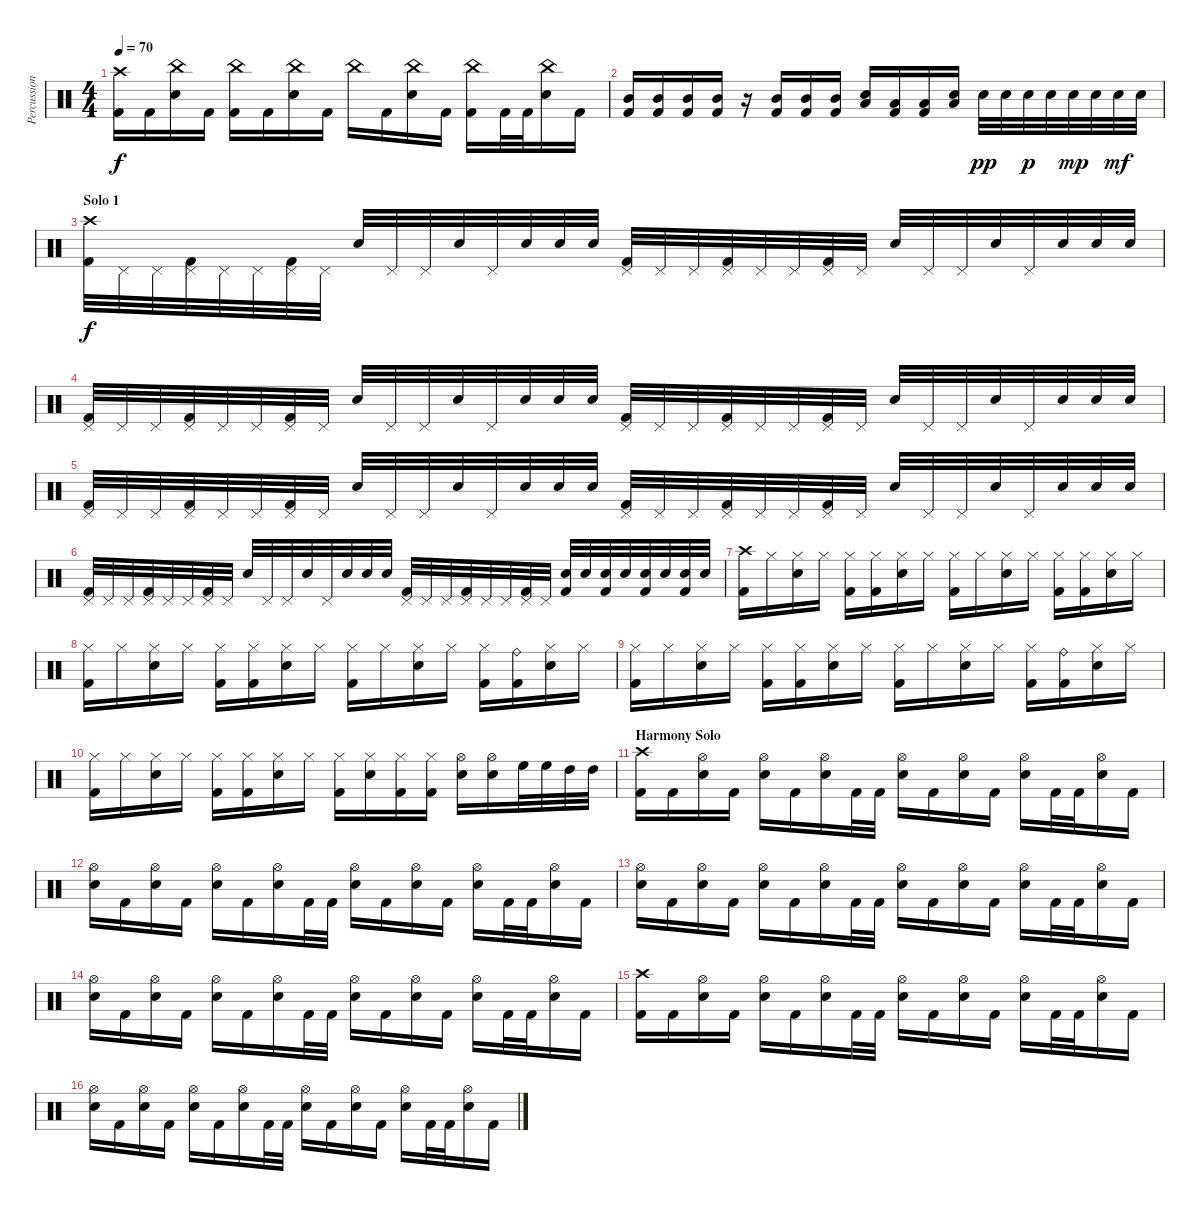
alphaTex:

\track ("Percussion" "Percussion") {instrument percussion}
\staff {score}
\articulation defaults
\ts (4 4)
\tempo 70
\clef neutral
\ks c
("Kick (hit) 2" "Crash high (hit)").16{dy f} "Kick (hit) 2".16 ("Electric Snare (hit)" "China (hit)").16 "Kick (hit) 2".16 ("Kick (hit) 2" "China (hit)").16 "Kick (hit) 2".16 ("Electric Snare (hit)" "China (hit)").16 "Kick (hit) 2".16 "China (hit)".16 "Kick (hit) 2".16 ("Electric Snare (hit)" "China (hit)").16 "Kick (hit) 2".16 ("Kick (hit) 2" "China (hit)").16 "Kick (hit) 2".32 "Kick (hit) 2".32 ("Electric Snare (hit)" "China (hit)").16 "Kick (hit) 2".16 |
("Kick (hit) 2" "Mid Tom (hit)").16 ("Kick (hit) 2" "Mid Tom (hit)").16 ("Kick (hit) 2" "Mid Tom (hit)").16 ("Kick (hit) 2" "Mid Tom (hit)").16 r.16 ("Kick (hit) 2" "Mid Tom (hit)").16 ("Kick (hit) 2" "Mid Tom (hit)").16 ("Kick (hit) 2" "Mid Tom (hit)").16 ("Electric Snare (hit)" "Low Tom (hit)").16 ("Kick (hit) 2" "Low Tom (hit)").16 ("Kick (hit) 2" "Low Tom (hit)").16 ("Electric Snare (hit)" "Low Tom (hit)").16 "Electric Snare (hit)".32{dy pp} "Electric Snare (hit)".32 "Electric Snare (hit)".32{dy p} "Electric Snare (hit)".32 "Electric Snare (hit)".32{dy mp} "Electric Snare (hit)".32 "Electric Snare (hit)".32{dy mf} "Electric Snare (hit)".32 |
\section ("" "Solo 1")
("Kick (hit) 2" "Crash high (hit)").32{dy f} "Pedal Hi-Hat (hit)".32 "Pedal Hi-Hat (hit)".32 ("Kick (hit) 2" "Pedal Hi-Hat (hit)").32 "Pedal Hi-Hat (hit)".32 "Pedal Hi-Hat (hit)".32 ("Kick (hit) 2" "Pedal Hi-Hat (hit)").32 "Pedal Hi-Hat (hit)".32 "Electric Snare (hit)".32 "Pedal Hi-Hat (hit)".32 "Pedal Hi-Hat (hit)".32 "Electric Snare (hit)".32 "Pedal Hi-Hat (hit)".32 "Electric Snare (hit)".32 "Electric Snare (hit)".32 "Electric Snare (hit)".32 ("Kick (hit) 2" "Pedal Hi-Hat (hit)").32 "Pedal Hi-Hat (hit)".32 "Pedal Hi-Hat (hit)".32 ("Kick (hit) 2" "Pedal Hi-Hat (hit)").32 "Pedal Hi-Hat (hit)".32 "Pedal Hi-Hat (hit)".32 ("Kick (hit) 2" "Pedal Hi-Hat (hit)").32 "Pedal Hi-Hat (hit)".32 "Electric Snare (hit)".32 "Pedal Hi-Hat (hit)".32 "Pedal Hi-Hat (hit)".32 "Electric Snare (hit)".32 "Pedal Hi-Hat (hit)".32 "Electric Snare (hit)".32 "Electric Snare (hit)".32 "Electric Snare (hit)".32 |
("Kick (hit) 2" "Pedal Hi-Hat (hit)").32 "Pedal Hi-Hat (hit)".32 "Pedal Hi-Hat (hit)".32 ("Kick (hit) 2" "Pedal Hi-Hat (hit)").32 "Pedal Hi-Hat (hit)".32 "Pedal Hi-Hat (hit)".32 ("Kick (hit) 2" "Pedal Hi-Hat (hit)").32 "Pedal Hi-Hat (hit)".32 "Electric Snare (hit)".32 "Pedal Hi-Hat (hit)".32 "Pedal Hi-Hat (hit)".32 "Electric Snare (hit)".32 "Pedal Hi-Hat (hit)".32 "Electric Snare (hit)".32 "Electric Snare (hit)".32 "Electric Snare (hit)".32 ("Kick (hit) 2" "Pedal Hi-Hat (hit)").32 "Pedal Hi-Hat (hit)".32 "Pedal Hi-Hat (hit)".32 ("Kick (hit) 2" "Pedal Hi-Hat (hit)").32 "Pedal Hi-Hat (hit)".32 "Pedal Hi-Hat (hit)".32 ("Kick (hit) 2" "Pedal Hi-Hat (hit)").32 "Pedal Hi-Hat (hit)".32 "Electric Snare (hit)".32 "Pedal Hi-Hat (hit)".32 "Pedal Hi-Hat (hit)".32 "Electric Snare (hit)".32 "Pedal Hi-Hat (hit)".32 "Electric Snare (hit)".32 "Electric Snare (hit)".32 "Electric Snare (hit)".32 |
("Kick (hit) 2" "Pedal Hi-Hat (hit)").32 "Pedal Hi-Hat (hit)".32 "Pedal Hi-Hat (hit)".32 ("Kick (hit) 2" "Pedal Hi-Hat (hit)").32 "Pedal Hi-Hat (hit)".32 "Pedal Hi-Hat (hit)".32 ("Kick (hit) 2" "Pedal Hi-Hat (hit)").32 "Pedal Hi-Hat (hit)".32 "Electric Snare (hit)".32 "Pedal Hi-Hat (hit)".32 "Pedal Hi-Hat (hit)".32 "Electric Snare (hit)".32 "Pedal Hi-Hat (hit)".32 "Electric Snare (hit)".32 "Electric Snare (hit)".32 "Electric Snare (hit)".32 ("Kick (hit) 2" "Pedal Hi-Hat (hit)").32 "Pedal Hi-Hat (hit)".32 "Pedal Hi-Hat (hit)".32 ("Kick (hit) 2" "Pedal Hi-Hat (hit)").32 "Pedal Hi-Hat (hit)".32 "Pedal Hi-Hat (hit)".32 ("Kick (hit) 2" "Pedal Hi-Hat (hit)").32 "Pedal Hi-Hat (hit)".32 "Electric Snare (hit)".32 "Pedal Hi-Hat (hit)".32 "Pedal Hi-Hat (hit)".32 "Electric Snare (hit)".32 "Pedal Hi-Hat (hit)".32 "Electric Snare (hit)".32 "Electric Snare (hit)".32 "Electric Snare (hit)".32 |
("Kick (hit) 2" "Pedal Hi-Hat (hit)").32 "Pedal Hi-Hat (hit)".32 "Pedal Hi-Hat (hit)".32 ("Kick (hit) 2" "Pedal Hi-Hat (hit)").32 "Pedal Hi-Hat (hit)".32 "Pedal Hi-Hat (hit)".32 ("Kick (hit) 2" "Pedal Hi-Hat (hit)").32 "Pedal Hi-Hat (hit)".32 "Electric Snare (hit)".32 "Pedal Hi-Hat (hit)".32 "Pedal Hi-Hat (hit)".32 "Electric Snare (hit)".32 "Pedal Hi-Hat (hit)".32 "Electric Snare (hit)".32 "Electric Snare (hit)".32 "Electric Snare (hit)".32 ("Kick (hit) 2" "Pedal Hi-Hat (hit)").32 "Pedal Hi-Hat (hit)".32 "Pedal Hi-Hat (hit)".32 ("Kick (hit) 2" "Pedal Hi-Hat (hit)").32 "Pedal Hi-Hat (hit)".32 "Pedal Hi-Hat (hit)".32 ("Kick (hit) 2" "Pedal Hi-Hat (hit)").32 "Pedal Hi-Hat (hit)".32 ("Electric Snare (hit)" "Kick (hit) 2").32 "Electric Snare (hit)".32 ("Electric Snare (hit)" "Kick (hit) 2").32 "Electric Snare (hit)".32 ("Electric Snare (hit)" "Kick (hit) 2").32 "Electric Snare (hit)".32 ("Electric Snare (hit)" "Kick (hit) 2").32 "Electric Snare (hit)".32 |
("Kick (hit) 2" "Crash high (hit)").16 "Hi-Hat (closed)".16 ("Electric Snare (hit)" "Hi-Hat (closed)").16 "Hi-Hat (closed)".16 ("Kick (hit) 2" "Hi-Hat (closed)").16 ("Kick (hit) 2" "Hi-Hat (closed)").16 ("Electric Snare (hit)" "Hi-Hat (closed)").16 "Hi-Hat (closed)".16 ("Kick (hit) 2" "Hi-Hat (closed)").16 "Hi-Hat (closed)".16 ("Electric Snare (hit)" "Hi-Hat (closed)").16 "Hi-Hat (closed)".16 ("Kick (hit) 2" "Hi-Hat (closed)").16 ("Kick (hit) 2" "Hi-Hat (closed)").16 ("Electric Snare (hit)" "Hi-Hat (closed)").16 "Hi-Hat (closed)".16 |
("Kick (hit) 2" "Hi-Hat (closed)").16 "Hi-Hat (closed)".16 ("Electric Snare (hit)" "Hi-Hat (closed)").16 "Hi-Hat (closed)".16 ("Kick (hit) 2" "Hi-Hat (closed)").16 ("Kick (hit) 2" "Hi-Hat (closed)").16 ("Electric Snare (hit)" "Hi-Hat (closed)").16 "Hi-Hat (closed)".16 ("Kick (hit) 2" "Hi-Hat (closed)").16 "Hi-Hat (closed)".16 ("Electric Snare (hit)" "Hi-Hat (closed)").16 "Hi-Hat (closed)".16 ("Kick (hit) 2" "Hi-Hat (closed)").16 ("Kick (hit) 2" "Ride (bell)").16 ("Electric Snare (hit)" "Hi-Hat (closed)").16 "Hi-Hat (closed)".16 |
("Kick (hit) 2" "Hi-Hat (closed)").16 "Hi-Hat (closed)".16 ("Electric Snare (hit)" "Hi-Hat (closed)").16 "Hi-Hat (closed)".16 ("Kick (hit) 2" "Hi-Hat (closed)").16 ("Kick (hit) 2" "Hi-Hat (closed)").16 ("Electric Snare (hit)" "Hi-Hat (closed)").16 "Hi-Hat (closed)".16 ("Kick (hit) 2" "Hi-Hat (closed)").16 "Hi-Hat (closed)".16 ("Electric Snare (hit)" "Hi-Hat (closed)").16 "Hi-Hat (closed)".16 ("Kick (hit) 2" "Hi-Hat (closed)").16 ("Kick (hit) 2" "Ride (bell)").16 ("Electric Snare (hit)" "Hi-Hat (closed)").16 "Hi-Hat (closed)".16 |
("Kick (hit) 2" "Hi-Hat (closed)").16 "Hi-Hat (closed)".16 ("Electric Snare (hit)" "Hi-Hat (closed)").16 "Hi-Hat (closed)".16 ("Kick (hit) 2" "Hi-Hat (closed)").16 ("Kick (hit) 2" "Hi-Hat (closed)").16 ("Electric Snare (hit)" "Hi-Hat (closed)").16 "Hi-Hat (closed)".16 ("Kick (hit) 2" "Hi-Hat (closed)").16 ("Electric Snare (hit)" "Hi-Hat (closed)").16 ("Kick (hit) 2" "Hi-Hat (closed)").16 ("Kick (hit) 2" "Hi-Hat (closed)").16 ("Electric Snare (hit)" "Hi-Hat (open)").16 ("Electric Snare (hit)" "Hi-Hat (open)").16 "High Floor Tom (hit)".32 "High Floor Tom (hit)".32 "High Tom (hit)".32 "High Tom (hit)".32 |
\section ("" "Harmony Solo")
("Kick (hit) 2" "Crash high (hit)").16 "Kick (hit) 2".16 ("Electric Snare (hit)" "Hi-Hat (open)").16 "Kick (hit) 2".16 ("Electric Snare (hit)" "Hi-Hat (open)").16 "Kick (hit) 2".16 ("Electric Snare (hit)" "Hi-Hat (open)").16 "Kick (hit) 2".32 "Kick (hit) 2".32 ("Electric Snare (hit)" "Hi-Hat (open)").16 "Kick (hit) 2".16 ("Electric Snare (hit)" "Hi-Hat (open)").16 "Kick (hit) 2".16 ("Electric Snare (hit)" "Hi-Hat (open)").16 "Kick (hit) 2".32 "Kick (hit) 2".32 ("Electric Snare (hit)" "Hi-Hat (open)").16 "Kick (hit) 2".16 |
("Electric Snare (hit)" "Hi-Hat (open)").16 "Kick (hit) 2".16 ("Electric Snare (hit)" "Hi-Hat (open)").16 "Kick (hit) 2".16 ("Electric Snare (hit)" "Hi-Hat (open)").16 "Kick (hit) 2".16 ("Electric Snare (hit)" "Hi-Hat (open)").16 "Kick (hit) 2".32 "Kick (hit) 2".32 ("Electric Snare (hit)" "Hi-Hat (open)").16 "Kick (hit) 2".16 ("Electric Snare (hit)" "Hi-Hat (open)").16 "Kick (hit) 2".16 ("Electric Snare (hit)" "Hi-Hat (open)").16 "Kick (hit) 2".32 "Kick (hit) 2".32 ("Electric Snare (hit)" "Hi-Hat (open)").16 "Kick (hit) 2".16 |
("Electric Snare (hit)" "Hi-Hat (open)").16 "Kick (hit) 2".16 ("Electric Snare (hit)" "Hi-Hat (open)").16 "Kick (hit) 2".16 ("Electric Snare (hit)" "Hi-Hat (open)").16 "Kick (hit) 2".16 ("Electric Snare (hit)" "Hi-Hat (open)").16 "Kick (hit) 2".32 "Kick (hit) 2".32 ("Electric Snare (hit)" "Hi-Hat (open)").16 "Kick (hit) 2".16 ("Electric Snare (hit)" "Hi-Hat (open)").16 "Kick (hit) 2".16 ("Electric Snare (hit)" "Hi-Hat (open)").16 "Kick (hit) 2".32 "Kick (hit) 2".32 ("Electric Snare (hit)" "Hi-Hat (open)").16 "Kick (hit) 2".16 |
("Electric Snare (hit)" "Hi-Hat (open)").16 "Kick (hit) 2".16 ("Electric Snare (hit)" "Hi-Hat (open)").16 "Kick (hit) 2".16 ("Electric Snare (hit)" "Hi-Hat (open)").16 "Kick (hit) 2".16 ("Electric Snare (hit)" "Hi-Hat (open)").16 "Kick (hit) 2".32 "Kick (hit) 2".32 ("Electric Snare (hit)" "Hi-Hat (open)").16 "Kick (hit) 2".16 ("Electric Snare (hit)" "Hi-Hat (open)").16 "Kick (hit) 2".16 ("Electric Snare (hit)" "Hi-Hat (open)").16 "Kick (hit) 2".32 "Kick (hit) 2".32 ("Electric Snare (hit)" "Hi-Hat (open)").16 "Kick (hit) 2".16 |
("Kick (hit) 2" "Crash high (hit)").16 "Kick (hit) 2".16 ("Electric Snare (hit)" "Hi-Hat (open)").16 "Kick (hit) 2".16 ("Electric Snare (hit)" "Hi-Hat (open)").16 "Kick (hit) 2".16 ("Electric Snare (hit)" "Hi-Hat (open)").16 "Kick (hit) 2".32 "Kick (hit) 2".32 ("Electric Snare (hit)" "Hi-Hat (open)").16 "Kick (hit) 2".16 ("Electric Snare (hit)" "Hi-Hat (open)").16 "Kick (hit) 2".16 ("Electric Snare (hit)" "Hi-Hat (open)").16 "Kick (hit) 2".32 "Kick (hit) 2".32 ("Electric Snare (hit)" "Hi-Hat (open)").16 "Kick (hit) 2".16 |
("Electric Snare (hit)" "Hi-Hat (open)").16 "Kick (hit) 2".16 ("Electric Snare (hit)" "Hi-Hat (open)").16 "Kick (hit) 2".16 ("Electric Snare (hit)" "Hi-Hat (open)").16 "Kick (hit) 2".16 ("Electric Snare (hit)" "Hi-Hat (open)").16 "Kick (hit) 2".32 "Kick (hit) 2".32 ("Electric Snare (hit)" "Hi-Hat (open)").16 "Kick (hit) 2".16 ("Electric Snare (hit)" "Hi-Hat (open)").16 "Kick (hit) 2".16 ("Electric Snare (hit)" "Hi-Hat (open)").16 "Kick (hit) 2".32 "Kick (hit) 2".32 ("Electric Snare (hit)" "Hi-Hat (open)").16 "Kick (hit) 2".16
